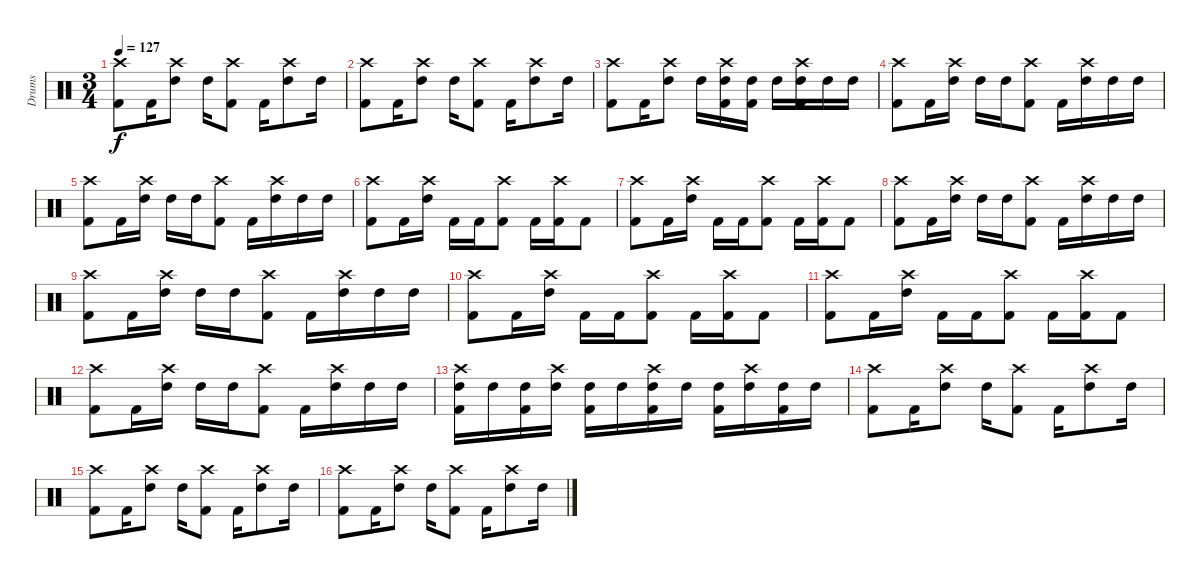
\track ("Drums" "Drums") {instrument percussion}
\staff {score}
\articulation defaults
\ts (3 4)
\tempo 127
\clef neutral
\ks c
("Crash high (hit)" "Kick (hit) 2").8{dy f} "Kick (hit) 2".16 ("Crash high (hit)" "High Tom (hit)").8 "High Tom (hit)".16 ("Crash high (hit)" "Kick (hit) 2").8 "Kick (hit) 2".16 ("Crash high (hit)" "High Tom (hit)").8 "High Tom (hit)".16 |
("Crash high (hit)" "Kick (hit) 2").8 "Kick (hit) 2".16 ("Crash high (hit)" "High Tom (hit)").8 "High Tom (hit)".16 ("Crash high (hit)" "Kick (hit) 2").8 "Kick (hit) 2".16 ("Crash high (hit)" "High Tom (hit)").8 "High Tom (hit)".16 |
("Crash high (hit)" "Kick (hit) 2").8 "Kick (hit) 2".16 ("Crash high (hit)" "High Tom (hit)").8 "High Tom (hit)".16 ("Crash high (hit)" "High Tom (hit)" "Kick (hit) 2").16 ("High Tom (hit)" "Kick (hit) 2").16 "High Tom (hit)".16 ("Crash high (hit)" "High Tom (hit)" "Kick (hit) 2").16 "High Tom (hit)".16 "High Tom (hit)".16 |
("Crash high (hit)" "Kick (hit) 2").8 "Kick (hit) 2".16 ("Crash high (hit)" "High Tom (hit)").16 "High Tom (hit)".16 "High Tom (hit)".16 ("Crash high (hit)" "Kick (hit) 2").8 "Kick (hit) 2".16 ("Crash high (hit)" "High Tom (hit)").16 "High Tom (hit)".16 "High Tom (hit)".16 |
("Crash high (hit)" "Kick (hit) 2").8 "Kick (hit) 2".16 ("Crash high (hit)" "High Tom (hit)").16 "High Tom (hit)".16 "High Tom (hit)".16 ("Crash high (hit)" "Kick (hit) 2").8 "Kick (hit) 2".16 ("Crash high (hit)" "High Tom (hit)").16 "High Tom (hit)".16 "High Tom (hit)".16 |
("Crash high (hit)" "Kick (hit) 2").8 "Kick (hit) 2".16 ("Crash high (hit)" "High Tom (hit)").16 "Kick (hit) 2".16 "Kick (hit) 2".16 ("Crash high (hit)" "Kick (hit) 2").8 "Kick (hit) 2".16 ("Crash high (hit)" "Kick (hit) 2").16 "Kick (hit) 2".8 |
("Crash high (hit)" "Kick (hit) 2").8 "Kick (hit) 2".16 ("Crash high (hit)" "High Tom (hit)").16 "Kick (hit) 2".16 "Kick (hit) 2".16 ("Crash high (hit)" "Kick (hit) 2").8 "Kick (hit) 2".16 ("Crash high (hit)" "Kick (hit) 2").16 "Kick (hit) 2".8 |
("Crash high (hit)" "Kick (hit) 2").8 "Kick (hit) 2".16 ("Crash high (hit)" "High Tom (hit)").16 "High Tom (hit)".16 "High Tom (hit)".16 ("Crash high (hit)" "Kick (hit) 2").8 "Kick (hit) 2".16 ("Crash high (hit)" "High Tom (hit)").16 "High Tom (hit)".16 "High Tom (hit)".16 |
("Crash high (hit)" "Kick (hit) 2").8 "Kick (hit) 2".16 ("Crash high (hit)" "High Tom (hit)").16 "High Tom (hit)".16 "High Tom (hit)".16 ("Crash high (hit)" "Kick (hit) 2").8 "Kick (hit) 2".16 ("Crash high (hit)" "High Tom (hit)").16 "High Tom (hit)".16 "High Tom (hit)".16 |
("Crash high (hit)" "Kick (hit) 2").8 "Kick (hit) 2".16 ("Crash high (hit)" "High Tom (hit)").16 "Kick (hit) 2".16 "Kick (hit) 2".16 ("Crash high (hit)" "Kick (hit) 2").8 "Kick (hit) 2".16 ("Crash high (hit)" "Kick (hit) 2").16 "Kick (hit) 2".8 |
("Crash high (hit)" "Kick (hit) 2").8 "Kick (hit) 2".16 ("Crash high (hit)" "High Tom (hit)").16 "Kick (hit) 2".16 "Kick (hit) 2".16 ("Crash high (hit)" "Kick (hit) 2").8 "Kick (hit) 2".16 ("Crash high (hit)" "Kick (hit) 2").16 "Kick (hit) 2".8 |
("Crash high (hit)" "Kick (hit) 2").8 "Kick (hit) 2".16 ("Crash high (hit)" "High Tom (hit)").16 "High Tom (hit)".16 "High Tom (hit)".16 ("Crash high (hit)" "Kick (hit) 2").8 "Kick (hit) 2".16 ("Crash high (hit)" "High Tom (hit)").16 "High Tom (hit)".16 "High Tom (hit)".16 |
("Crash high (hit)" "High Tom (hit)" "Kick (hit) 2").16 "High Tom (hit)".16 ("High Tom (hit)" "Kick (hit) 2").16 ("Crash high (hit)" "High Tom (hit)").16 ("High Tom (hit)" "Kick (hit) 2").16 "High Tom (hit)".16 ("Crash high (hit)" "High Tom (hit)" "Kick (hit) 2").16 "High Tom (hit)".16 ("High Tom (hit)" "Kick (hit) 2").16 ("Crash high (hit)" "High Tom (hit)").16 ("High Tom (hit)" "Kick (hit) 2").16 "High Tom (hit)".16 |
("Crash high (hit)" "Kick (hit) 2").8 "Kick (hit) 2".16 ("Crash high (hit)" "High Tom (hit)").8 "High Tom (hit)".16 ("Crash high (hit)" "Kick (hit) 2").8 "Kick (hit) 2".16 ("Crash high (hit)" "High Tom (hit)").8 "High Tom (hit)".16 |
("Crash high (hit)" "Kick (hit) 2").8 "Kick (hit) 2".16 ("Crash high (hit)" "High Tom (hit)").8 "High Tom (hit)".16 ("Crash high (hit)" "Kick (hit) 2").8 "Kick (hit) 2".16 ("Crash high (hit)" "High Tom (hit)").8 "High Tom (hit)".16 |
("Crash high (hit)" "Kick (hit) 2").8 "Kick (hit) 2".16 ("Crash high (hit)" "High Tom (hit)").8 "High Tom (hit)".16 ("Crash high (hit)" "Kick (hit) 2").8 "Kick (hit) 2".16 ("Crash high (hit)" "High Tom (hit)").8 "High Tom (hit)".16
